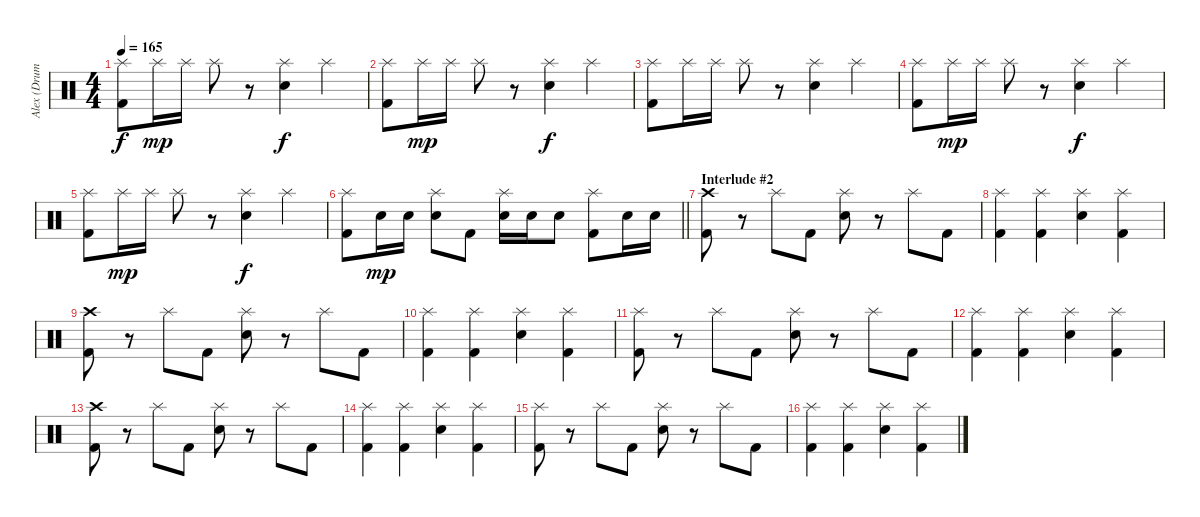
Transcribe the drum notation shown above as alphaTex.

\track ("Alex (Drums)" "Alex (Drum") {instrument percussion}
\staff {score}
\articulation defaults
\ts (4 4)
\tempo 165
\clef neutral
\ks c
("Splash (hit)" "Kick (hit) 2").8{dy f} "Splash (hit)".16{dy mp} "Splash (hit)".16 "Splash (hit)".8 r.8 ("Splash (hit)" "Snare (hit) 2").4{dy f} "Splash (hit)".4 |
("Splash (hit)" "Kick (hit) 2").8 "Splash (hit)".16{dy mp} "Splash (hit)".16 "Splash (hit)".8 r.8 ("Splash (hit)" "Snare (hit) 2").4{dy f} "Splash (hit)".4 |
("Splash (hit)" "Kick (hit) 2").8 "Splash (hit)".16 "Splash (hit)".16 "Splash (hit)".8 r.8 ("Splash (hit)" "Snare (hit) 2").4 "Splash (hit)".4 |
("Splash (hit)" "Kick (hit) 2").8 "Splash (hit)".16{dy mp} "Splash (hit)".16 "Splash (hit)".8 r.8 ("Splash (hit)" "Snare (hit) 2").4{dy f} "Splash (hit)".4 |
("Splash (hit)" "Kick (hit) 2").8 "Splash (hit)".16{dy mp} "Splash (hit)".16 "Splash (hit)".8 r.8 ("Splash (hit)" "Snare (hit) 2").4{dy f} "Splash (hit)".4 |
\barLineRight lightlight
("Splash (hit)" "Kick (hit) 2").8{volume 10} "Snare (hit) 2".16{dy mp} "Snare (hit) 2".16 ("Splash (hit)" "Snare (hit) 2").8 "Kick (hit) 2".8 ("Splash (hit)" "Snare (hit) 2").16 "Snare (hit) 2".16 "Snare (hit) 2".8 ("Splash (hit)" "Kick (hit) 2").8 "Snare (hit) 2".16 "Snare (hit) 2".16 |
\section ("" "Interlude #2")
("Crash high (hit)" "Kick (hit) 2").8 r.8 "Splash (hit)".8 "Kick (hit) 2".8 ("Splash (hit)" "Snare (hit) 2").8 r.8 "Splash (hit)".8 "Kick (hit) 2".8 |
("Splash (hit)" "Kick (hit) 2").4 ("Splash (hit)" "Kick (hit) 2").4 ("Splash (hit)" "Snare (hit) 2").4 ("Splash (hit)" "Kick (hit) 2").4 |
("Crash high (hit)" "Kick (hit) 2").8 r.8 "Splash (hit)".8 "Kick (hit) 2".8 ("Splash (hit)" "Snare (hit) 2").8 r.8 "Splash (hit)".8 "Kick (hit) 2".8 |
("Splash (hit)" "Kick (hit) 2").4 ("Splash (hit)" "Kick (hit) 2").4 ("Splash (hit)" "Snare (hit) 2").4 ("Splash (hit)" "Kick (hit) 2").4 |
("Splash (hit)" "Kick (hit) 2").8 r.8 "Splash (hit)".8 "Kick (hit) 2".8 ("Splash (hit)" "Snare (hit) 2").8 r.8 "Splash (hit)".8 "Kick (hit) 2".8 |
("Splash (hit)" "Kick (hit) 2").4 ("Splash (hit)" "Kick (hit) 2").4 ("Splash (hit)" "Snare (hit) 2").4 ("Splash (hit)" "Kick (hit) 2").4 |
("Crash high (hit)" "Kick (hit) 2").8 r.8 "Splash (hit)".8 "Kick (hit) 2".8 ("Splash (hit)" "Snare (hit) 2").8 r.8 "Splash (hit)".8 "Kick (hit) 2".8 |
("Splash (hit)" "Kick (hit) 2").4 ("Splash (hit)" "Kick (hit) 2").4 ("Splash (hit)" "Snare (hit) 2").4 ("Splash (hit)" "Kick (hit) 2").4 |
("Splash (hit)" "Kick (hit) 2").8 r.8 "Splash (hit)".8 "Kick (hit) 2".8 ("Splash (hit)" "Snare (hit) 2").8 r.8 "Splash (hit)".8 "Kick (hit) 2".8 |
("Splash (hit)" "Kick (hit) 2").4 ("Splash (hit)" "Kick (hit) 2").4 ("Splash (hit)" "Snare (hit) 2").4 ("Splash (hit)" "Kick (hit) 2").4
